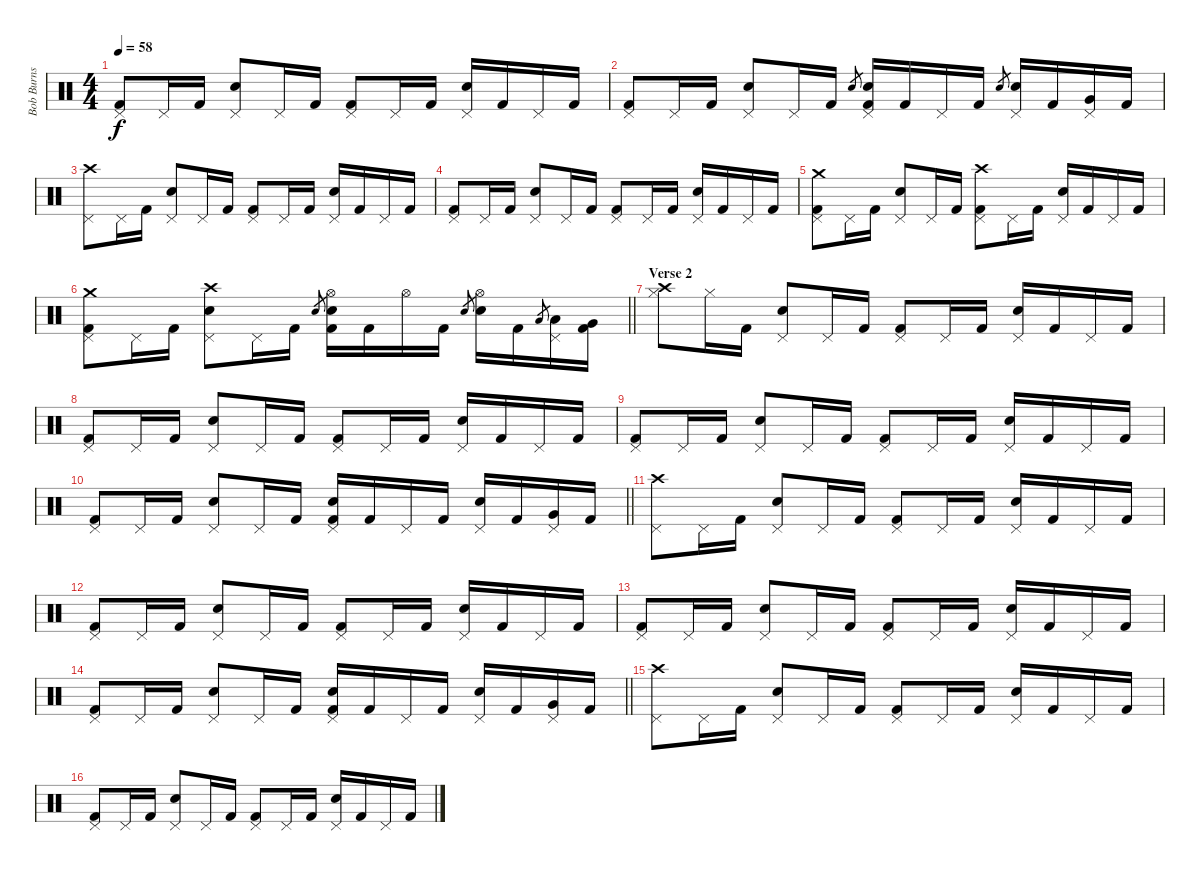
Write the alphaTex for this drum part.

\track ("Bob Burns (drums and percussion)" "Bob Burns ") {instrument percussion}
\staff {score}
\articulation defaults
\ts (4 4)
\tempo 58
\clef neutral
\ks c
("Pedal Hi-Hat (hit)" "Kick (hit) 2").8{dy f} "Pedal Hi-Hat (hit)".16 "Kick (hit) 2".16 ("Pedal Hi-Hat (hit)" "Electric Snare (hit)").8 "Pedal Hi-Hat (hit)".16 "Kick (hit) 2".16 ("Pedal Hi-Hat (hit)" "Kick (hit) 2").8 "Pedal Hi-Hat (hit)".16 "Kick (hit) 2".16 ("Pedal Hi-Hat (hit)" "Electric Snare (hit)").16 "Kick (hit) 2".16 "Pedal Hi-Hat (hit)".16 "Kick (hit) 2".16 |
("Pedal Hi-Hat (hit)" "Kick (hit) 2").8 "Pedal Hi-Hat (hit)".16 "Kick (hit) 2".16 ("Pedal Hi-Hat (hit)" "Electric Snare (hit)").8 "Pedal Hi-Hat (hit)".16 "Kick (hit) 2".16 "Electric Snare (hit)".8{gr} ("Pedal Hi-Hat (hit)" "Electric Snare (hit)" "Kick (hit) 2").16 "Kick (hit) 2".16 "Pedal Hi-Hat (hit)".16 "Kick (hit) 2".16 "Electric Snare (hit)".8{gr} ("Pedal Hi-Hat (hit)" "Electric Snare (hit)").16 "Kick (hit) 2".16 ("Pedal Hi-Hat (hit)" "Very Low Tom (hit)").16 "Kick (hit) 2".16 |
("Crash high (hit)" "Pedal Hi-Hat (hit)").8 "Pedal Hi-Hat (hit)".16 "Kick (hit) 2".16 ("Pedal Hi-Hat (hit)" "Electric Snare (hit)").8 "Pedal Hi-Hat (hit)".16 "Kick (hit) 2".16 ("Pedal Hi-Hat (hit)" "Kick (hit) 2").8 "Pedal Hi-Hat (hit)".16 "Kick (hit) 2".16 ("Pedal Hi-Hat (hit)" "Electric Snare (hit)").16 "Kick (hit) 2".16 "Pedal Hi-Hat (hit)".16 "Kick (hit) 2".16 |
("Pedal Hi-Hat (hit)" "Kick (hit) 2").8 "Pedal Hi-Hat (hit)".16 "Kick (hit) 2".16 ("Pedal Hi-Hat (hit)" "Electric Snare (hit)").8 "Pedal Hi-Hat (hit)".16 "Kick (hit) 2".16 ("Pedal Hi-Hat (hit)" "Kick (hit) 2").8 "Pedal Hi-Hat (hit)".16 "Kick (hit) 2".16 ("Pedal Hi-Hat (hit)" "Electric Snare (hit)").16 "Kick (hit) 2".16 "Pedal Hi-Hat (hit)".16 "Kick (hit) 2".16 |
("Crash medium (hit)" "Pedal Hi-Hat (hit)" "Kick (hit) 2").8 "Pedal Hi-Hat (hit)".16 "Kick (hit) 2".16 ("Pedal Hi-Hat (hit)" "Electric Snare (hit)").8 "Pedal Hi-Hat (hit)".16 "Kick (hit) 2".16 ("Crash high (hit)" "Pedal Hi-Hat (hit)" "Kick (hit) 2").8 "Pedal Hi-Hat (hit)".16 "Kick (hit) 2".16 ("Pedal Hi-Hat (hit)" "Electric Snare (hit)").16 "Kick (hit) 2".16 "Pedal Hi-Hat (hit)".16 "Kick (hit) 2".16 |
\barLineRight lightlight
("Crash medium (hit)" "Pedal Hi-Hat (hit)" "Kick (hit) 2").8 "Pedal Hi-Hat (hit)".16 "Kick (hit) 2".16 ("Crash high (hit)" "Pedal Hi-Hat (hit)" "Electric Snare (hit)").8 "Pedal Hi-Hat (hit)".16 "Kick (hit) 2".16 "Electric Snare (hit)".8{gr} ("Hi-Hat (open)" "Electric Snare (hit)" "Kick (hit) 2").16 "Kick (hit) 2".16 "Hi-Hat (open)".16 "Kick (hit) 2".16 "Electric Snare (hit)".8{gr} ("Hi-Hat (open)" "Electric Snare (hit)").16 "Kick (hit) 2".16 "Low Tom (hit)".8{gr} ("Pedal Hi-Hat (hit)" "Low Tom (hit)").16 ("Very Low Tom (hit)" "Kick (hit) 2").16 |
\section ("" "Verse 2")
("Crash high (hit)" "Hi-Hat (closed)").8 "Hi-Hat (closed)".16 "Kick (hit) 2".16 ("Pedal Hi-Hat (hit)" "Electric Snare (hit)").8 "Pedal Hi-Hat (hit)".16 "Kick (hit) 2".16 ("Pedal Hi-Hat (hit)" "Kick (hit) 2").8 "Pedal Hi-Hat (hit)".16 "Kick (hit) 2".16 ("Pedal Hi-Hat (hit)" "Electric Snare (hit)").16 "Kick (hit) 2".16 "Pedal Hi-Hat (hit)".16 "Kick (hit) 2".16 |
("Pedal Hi-Hat (hit)" "Kick (hit) 2").8 "Pedal Hi-Hat (hit)".16 "Kick (hit) 2".16 ("Pedal Hi-Hat (hit)" "Electric Snare (hit)").8 "Pedal Hi-Hat (hit)".16 "Kick (hit) 2".16 ("Pedal Hi-Hat (hit)" "Kick (hit) 2").8 "Pedal Hi-Hat (hit)".16 "Kick (hit) 2".16 ("Pedal Hi-Hat (hit)" "Electric Snare (hit)").16 "Kick (hit) 2".16 "Pedal Hi-Hat (hit)".16 "Kick (hit) 2".16 |
("Pedal Hi-Hat (hit)" "Kick (hit) 2").8 "Pedal Hi-Hat (hit)".16 "Kick (hit) 2".16 ("Pedal Hi-Hat (hit)" "Electric Snare (hit)").8 "Pedal Hi-Hat (hit)".16 "Kick (hit) 2".16 ("Pedal Hi-Hat (hit)" "Kick (hit) 2").8 "Pedal Hi-Hat (hit)".16 "Kick (hit) 2".16 ("Pedal Hi-Hat (hit)" "Electric Snare (hit)").16 "Kick (hit) 2".16 "Pedal Hi-Hat (hit)".16 "Kick (hit) 2".16 |
\barLineRight lightlight
("Pedal Hi-Hat (hit)" "Kick (hit) 2").8 "Pedal Hi-Hat (hit)".16 "Kick (hit) 2".16 ("Pedal Hi-Hat (hit)" "Electric Snare (hit)").8 "Pedal Hi-Hat (hit)".16 "Kick (hit) 2".16 ("Pedal Hi-Hat (hit)" "Electric Snare (hit)" "Kick (hit) 2").16 "Kick (hit) 2".16 "Pedal Hi-Hat (hit)".16 "Kick (hit) 2".16 ("Pedal Hi-Hat (hit)" "Electric Snare (hit)").16 "Kick (hit) 2".16 ("Pedal Hi-Hat (hit)" "Very Low Tom (hit)").16 "Kick (hit) 2".16 |
("Crash high (hit)" "Pedal Hi-Hat (hit)").8 "Pedal Hi-Hat (hit)".16 "Kick (hit) 2".16 ("Pedal Hi-Hat (hit)" "Electric Snare (hit)").8 "Pedal Hi-Hat (hit)".16 "Kick (hit) 2".16 ("Pedal Hi-Hat (hit)" "Kick (hit) 2").8 "Pedal Hi-Hat (hit)".16 "Kick (hit) 2".16 ("Pedal Hi-Hat (hit)" "Electric Snare (hit)").16 "Kick (hit) 2".16 "Pedal Hi-Hat (hit)".16 "Kick (hit) 2".16 |
("Pedal Hi-Hat (hit)" "Kick (hit) 2").8 "Pedal Hi-Hat (hit)".16 "Kick (hit) 2".16 ("Pedal Hi-Hat (hit)" "Electric Snare (hit)").8 "Pedal Hi-Hat (hit)".16 "Kick (hit) 2".16 ("Pedal Hi-Hat (hit)" "Kick (hit) 2").8 "Pedal Hi-Hat (hit)".16 "Kick (hit) 2".16 ("Pedal Hi-Hat (hit)" "Electric Snare (hit)").16 "Kick (hit) 2".16 "Pedal Hi-Hat (hit)".16 "Kick (hit) 2".16 |
("Pedal Hi-Hat (hit)" "Kick (hit) 2").8 "Pedal Hi-Hat (hit)".16 "Kick (hit) 2".16 ("Pedal Hi-Hat (hit)" "Electric Snare (hit)").8 "Pedal Hi-Hat (hit)".16 "Kick (hit) 2".16 ("Pedal Hi-Hat (hit)" "Kick (hit) 2").8 "Pedal Hi-Hat (hit)".16 "Kick (hit) 2".16 ("Pedal Hi-Hat (hit)" "Electric Snare (hit)").16 "Kick (hit) 2".16 "Pedal Hi-Hat (hit)".16 "Kick (hit) 2".16 |
\barLineRight lightlight
("Pedal Hi-Hat (hit)" "Kick (hit) 2").8 "Pedal Hi-Hat (hit)".16 "Kick (hit) 2".16 ("Pedal Hi-Hat (hit)" "Electric Snare (hit)").8 "Pedal Hi-Hat (hit)".16 "Kick (hit) 2".16 ("Pedal Hi-Hat (hit)" "Electric Snare (hit)" "Kick (hit) 2").16 "Kick (hit) 2".16 "Pedal Hi-Hat (hit)".16 "Kick (hit) 2".16 ("Pedal Hi-Hat (hit)" "Electric Snare (hit)").16 "Kick (hit) 2".16 ("Pedal Hi-Hat (hit)" "Very Low Tom (hit)").16 "Kick (hit) 2".16 |
\section ("" "")
("Crash high (hit)" "Pedal Hi-Hat (hit)").8 "Pedal Hi-Hat (hit)".16 "Kick (hit) 2".16 ("Pedal Hi-Hat (hit)" "Electric Snare (hit)").8 "Pedal Hi-Hat (hit)".16 "Kick (hit) 2".16 ("Pedal Hi-Hat (hit)" "Kick (hit) 2").8 "Pedal Hi-Hat (hit)".16 "Kick (hit) 2".16 ("Pedal Hi-Hat (hit)" "Electric Snare (hit)").16 "Kick (hit) 2".16 "Pedal Hi-Hat (hit)".16 "Kick (hit) 2".16 |
("Pedal Hi-Hat (hit)" "Kick (hit) 2").8 "Pedal Hi-Hat (hit)".16 "Kick (hit) 2".16 ("Pedal Hi-Hat (hit)" "Electric Snare (hit)").8 "Pedal Hi-Hat (hit)".16 "Kick (hit) 2".16 ("Pedal Hi-Hat (hit)" "Kick (hit) 2").8 "Pedal Hi-Hat (hit)".16 "Kick (hit) 2".16 ("Pedal Hi-Hat (hit)" "Electric Snare (hit)").16 "Kick (hit) 2".16 "Pedal Hi-Hat (hit)".16 "Kick (hit) 2".16
